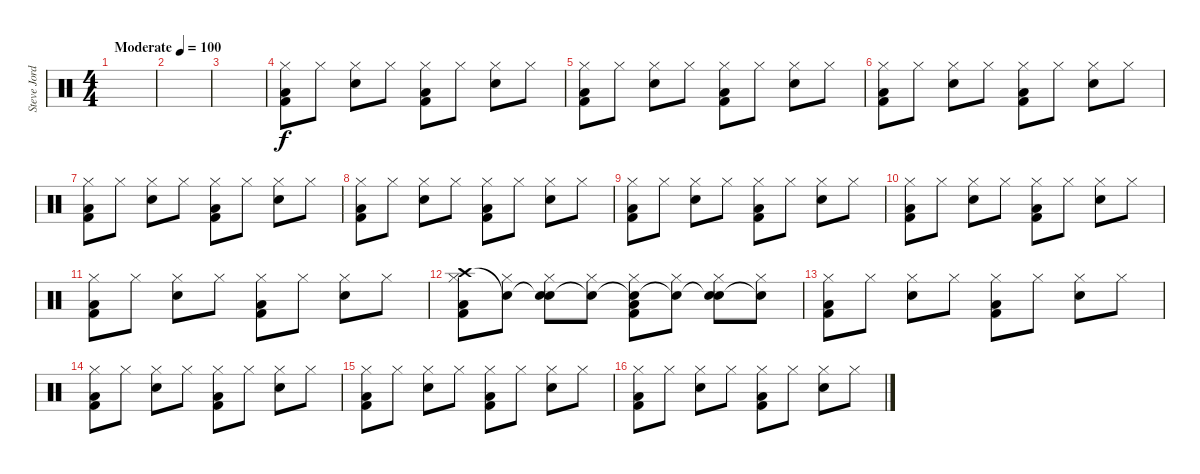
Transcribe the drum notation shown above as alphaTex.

\track ("Steve Jordan" "Steve Jord") {instrument percussion}
\staff {score}
\articulation defaults
\ts (4 4)
\tempo (100 "Moderate")
\clef neutral
\ks c
|
|
|
("Hi-Hat (closed)" "Low Floor Tom (hit)" "Kick (hit) 2").8 "Hi-Hat (closed)".8 ("Hi-Hat (closed)" "Snare (hit) 2").8 "Hi-Hat (closed)".8 ("Hi-Hat (closed)" "Low Floor Tom (hit)" "Kick (hit) 2").8 "Hi-Hat (closed)".8 ("Hi-Hat (closed)" "Snare (hit) 2").8 "Hi-Hat (closed)".8 |
("Hi-Hat (closed)" "Low Floor Tom (hit)" "Kick (hit) 2").8 "Hi-Hat (closed)".8 ("Hi-Hat (closed)" "Snare (hit) 2").8 "Hi-Hat (closed)".8 ("Hi-Hat (closed)" "Low Floor Tom (hit)" "Kick (hit) 2").8 "Hi-Hat (closed)".8 ("Hi-Hat (closed)" "Snare (hit) 2").8 "Hi-Hat (closed)".8 |
("Hi-Hat (closed)" "Low Floor Tom (hit)" "Kick (hit) 2").8 "Hi-Hat (closed)".8 ("Hi-Hat (closed)" "Snare (hit) 2").8 "Hi-Hat (closed)".8 ("Hi-Hat (closed)" "Low Floor Tom (hit)" "Kick (hit) 2").8 "Hi-Hat (closed)".8 ("Hi-Hat (closed)" "Snare (hit) 2").8 "Hi-Hat (closed)".8 |
("Hi-Hat (closed)" "Low Floor Tom (hit)" "Kick (hit) 2").8 "Hi-Hat (closed)".8 ("Hi-Hat (closed)" "Snare (hit) 2").8 "Hi-Hat (closed)".8 ("Hi-Hat (closed)" "Low Floor Tom (hit)" "Kick (hit) 2").8 "Hi-Hat (closed)".8 ("Hi-Hat (closed)" "Snare (hit) 2").8 "Hi-Hat (closed)".8 |
("Hi-Hat (closed)" "Low Floor Tom (hit)" "Kick (hit) 2").8 "Hi-Hat (closed)".8 ("Hi-Hat (closed)" "Snare (hit) 2").8 "Hi-Hat (closed)".8 ("Hi-Hat (closed)" "Low Floor Tom (hit)" "Kick (hit) 2").8 "Hi-Hat (closed)".8 ("Hi-Hat (closed)" "Snare (hit) 2").8 "Hi-Hat (closed)".8 |
("Hi-Hat (closed)" "Low Floor Tom (hit)" "Kick (hit) 2").8 "Hi-Hat (closed)".8 ("Hi-Hat (closed)" "Snare (hit) 2").8 "Hi-Hat (closed)".8 ("Hi-Hat (closed)" "Low Floor Tom (hit)" "Kick (hit) 2").8 "Hi-Hat (closed)".8 ("Hi-Hat (closed)" "Snare (hit) 2").8 "Hi-Hat (closed)".8 |
("Hi-Hat (closed)" "Low Floor Tom (hit)" "Kick (hit) 2").8 "Hi-Hat (closed)".8 ("Hi-Hat (closed)" "Snare (hit) 2").8 "Hi-Hat (closed)".8 ("Hi-Hat (closed)" "Low Floor Tom (hit)" "Kick (hit) 2").8 "Hi-Hat (closed)".8 ("Hi-Hat (closed)" "Snare (hit) 2").8 "Hi-Hat (closed)".8 |
("Hi-Hat (closed)" "Low Floor Tom (hit)" "Kick (hit) 2").8 "Hi-Hat (closed)".8 ("Hi-Hat (closed)" "Snare (hit) 2").8 "Hi-Hat (closed)".8 ("Hi-Hat (closed)" "Low Floor Tom (hit)" "Kick (hit) 2").8 "Hi-Hat (closed)".8 ("Hi-Hat (closed)" "Snare (hit) 2").8 "Hi-Hat (closed)".8 |
("Crash high (hit)" "Hi-Hat (closed)" "Low Floor Tom (hit)" "Kick (hit) 2").8 ("Snare (hit)"{t} "Hi-Hat (closed)").8 ("Snare (hit)"{t} "Hi-Hat (closed)" "Snare (hit) 2").8 ("Snare (hit)"{t} "Hi-Hat (closed)").8 ("Snare (hit)"{t} "Hi-Hat (closed)" "Low Floor Tom (hit)" "Kick (hit) 2").8 ("Snare (hit)"{t} "Hi-Hat (closed)").8 ("Snare (hit)"{t} "Hi-Hat (closed)" "Snare (hit) 2").8 ("Snare (hit)"{t} "Hi-Hat (closed)").8 |
("Hi-Hat (closed)" "Low Floor Tom (hit)" "Kick (hit) 2").8 "Hi-Hat (closed)".8 ("Hi-Hat (closed)" "Snare (hit) 2").8 "Hi-Hat (closed)".8 ("Hi-Hat (closed)" "Low Floor Tom (hit)" "Kick (hit) 2").8 "Hi-Hat (closed)".8 ("Hi-Hat (closed)" "Snare (hit) 2").8 "Hi-Hat (closed)".8 |
("Hi-Hat (closed)" "Low Floor Tom (hit)" "Kick (hit) 2").8 "Hi-Hat (closed)".8 ("Hi-Hat (closed)" "Snare (hit) 2").8 "Hi-Hat (closed)".8 ("Hi-Hat (closed)" "Low Floor Tom (hit)" "Kick (hit) 2").8 "Hi-Hat (closed)".8 ("Hi-Hat (closed)" "Snare (hit) 2").8 "Hi-Hat (closed)".8 |
("Hi-Hat (closed)" "Low Floor Tom (hit)" "Kick (hit) 2").8 "Hi-Hat (closed)".8 ("Hi-Hat (closed)" "Snare (hit) 2").8 "Hi-Hat (closed)".8 ("Hi-Hat (closed)" "Low Floor Tom (hit)" "Kick (hit) 2").8 "Hi-Hat (closed)".8 ("Hi-Hat (closed)" "Snare (hit) 2").8 "Hi-Hat (closed)".8 |
("Hi-Hat (closed)" "Low Floor Tom (hit)" "Kick (hit) 2").8 "Hi-Hat (closed)".8 ("Hi-Hat (closed)" "Snare (hit) 2").8 "Hi-Hat (closed)".8 ("Hi-Hat (closed)" "Low Floor Tom (hit)" "Kick (hit) 2").8 "Hi-Hat (closed)".8 ("Hi-Hat (closed)" "Snare (hit) 2").8 "Hi-Hat (closed)".8
